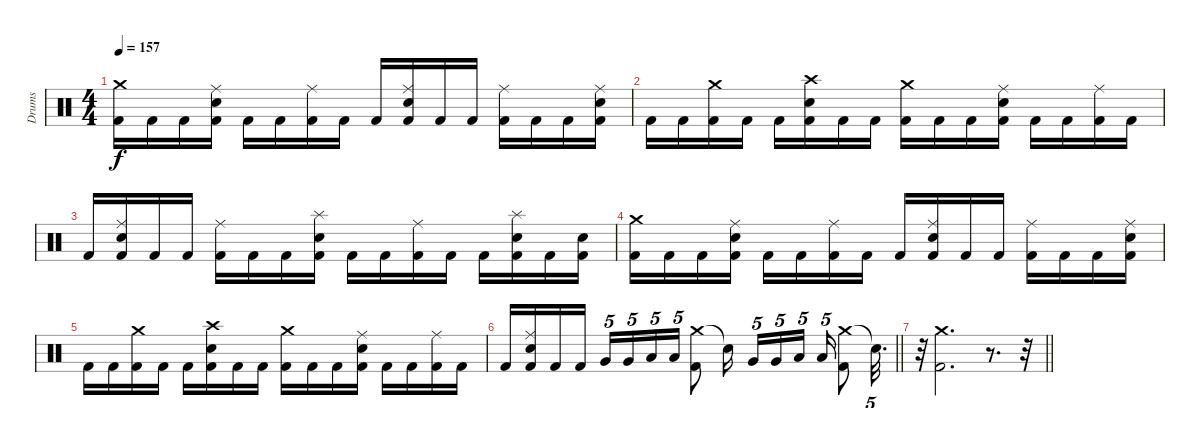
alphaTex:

\track ("Drums" "Drums") {instrument percussion}
\staff {score}
\articulation defaults
\ts (4 4)
\tempo 157
\clef neutral
\ks c
("Crash medium (hit)" "Kick (hit) 2").16{dy f} "Kick (hit) 2".16 "Kick (hit) 2".16 ("Ride (middle)" "Snare (hit) 2" "Kick (hit) 2").16 "Kick (hit) 2".16 "Kick (hit) 2".16 ("Ride (middle)" "Kick (hit) 2").16 "Kick (hit) 2".16 "Kick (hit) 2".16 ("Ride (middle)" "Snare (hit) 2" "Kick (hit) 2").16 "Kick (hit) 2".16 "Kick (hit) 2".16 ("Ride (middle)" "Kick (hit) 2").16 "Kick (hit) 2".16 "Kick (hit) 2".16 ("Ride (middle)" "Snare (hit) 2" "Kick (hit) 2").16 |
"Kick (hit) 2".16 "Kick (hit) 2".16 ("Crash medium (hit)" "Kick (hit) 2").16 "Kick (hit) 2".16 "Kick (hit) 2".16 ("Crash high (hit)" "Snare (hit) 2" "Kick (hit) 2").16 "Kick (hit) 2".16 "Kick (hit) 2".16 ("Crash medium (hit)" "Kick (hit) 2").16 "Kick (hit) 2".16 "Kick (hit) 2".16 ("Ride (middle)" "Snare (hit) 2" "Kick (hit) 2").16 "Kick (hit) 2".16 "Kick (hit) 2".16 ("Ride (middle)" "Kick (hit) 2").16 "Kick (hit) 2".16 |
"Kick (hit) 2".16 ("Ride (middle)" "Snare (hit) 2" "Kick (hit) 2").16 "Kick (hit) 2".16 "Kick (hit) 2".16 ("Ride (middle)" "Kick (hit) 2").16 "Kick (hit) 2".16 "Kick (hit) 2".16 ("Splash (hit)" "Snare (hit) 2" "Kick (hit) 2").16 "Kick (hit) 2".16 "Kick (hit) 2".16 ("Ride (middle)" "Kick (hit) 2").16 "Kick (hit) 2".16 "Kick (hit) 2".16 ("Splash (hit)" "Snare (hit) 2" "Kick (hit) 2").16 "Kick (hit) 2".16 ("Snare (hit) 2" "Kick (hit) 2").16 |
("Crash medium (hit)" "Kick (hit) 2").16 "Kick (hit) 2".16 "Kick (hit) 2".16 ("Ride (middle)" "Snare (hit) 2" "Kick (hit) 2").16 "Kick (hit) 2".16 "Kick (hit) 2".16 ("Ride (middle)" "Kick (hit) 2").16 "Kick (hit) 2".16 "Kick (hit) 2".16 ("Ride (middle)" "Snare (hit) 2" "Kick (hit) 2").16 "Kick (hit) 2".16 "Kick (hit) 2".16 ("Ride (middle)" "Kick (hit) 2").16 "Kick (hit) 2".16 "Kick (hit) 2".16 ("Ride (middle)" "Snare (hit) 2" "Kick (hit) 2").16 |
"Kick (hit) 2".16 "Kick (hit) 2".16 ("Crash medium (hit)" "Kick (hit) 2").16 "Kick (hit) 2".16 "Kick (hit) 2".16 ("Crash high (hit)" "Snare (hit) 2" "Kick (hit) 2").16 "Kick (hit) 2".16 "Kick (hit) 2".16 ("Crash medium (hit)" "Kick (hit) 2").16 "Kick (hit) 2".16 "Kick (hit) 2".16 ("Ride (middle)" "Snare (hit) 2" "Kick (hit) 2").16 "Kick (hit) 2".16 "Kick (hit) 2".16 ("Ride (middle)" "Kick (hit) 2").16 "Kick (hit) 2".16 |
\barLineRight lightlight "Kick (hit) 2".16
("Ride (middle)" "Snare (hit) 2" "Kick (hit) 2").16 "Kick (hit) 2".16 "Kick (hit) 2".16 "Very Low Tom (hit)".16{tu (5 4)} "Very Low Tom (hit)".16{tu (5 4)} "Low Floor Tom (hit)".16{tu (5 4)} "Low Floor Tom (hit)".16{tu (5 4)} ("Crash medium (hit)" "Kick (hit) 2").8 "Snare (hit)"{t}.16{beam splitsecondary} "Very Low Tom (hit)".16{tu (5 4)} "Very Low Tom (hit)".16{tu (5 4)} "Low Floor Tom (hit)".16{tu (5 4)} "Low Floor Tom (hit)".16{tu (5 4)} ("Crash medium (hit)" "Kick (hit) 2").8 "Snare (hit)"{t}.32{d tu (5 4)} |
\barLineRight lightlight
r.32 ("Crash medium (hit)" "Kick (hit) 2").2{d} r.8{d} r.32
